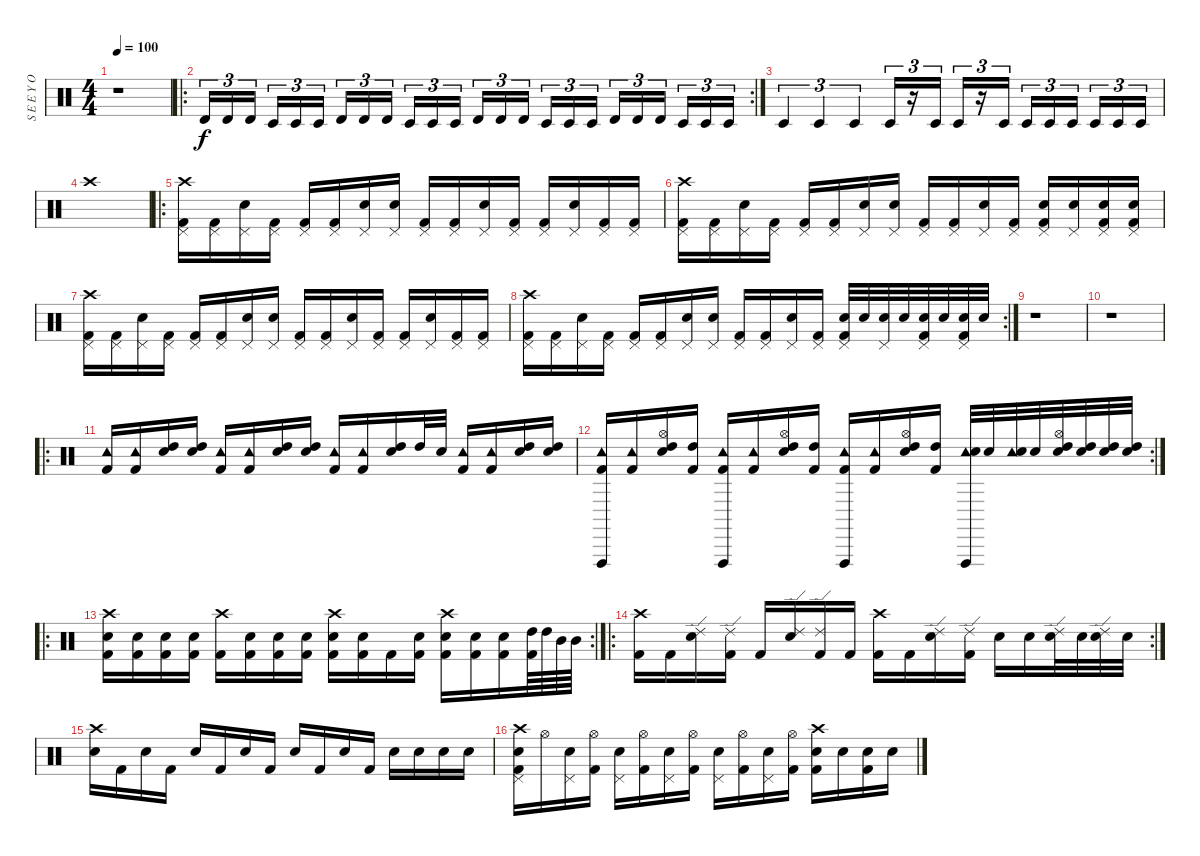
\track ("S E E Y O U R " "S E E Y O ") {instrument percussion}
\staff {score}
\articulation defaults
\ts (4 4)
\tempo 100
\clef neutral
\ks c
r.1{dy f} |
\ro
\rc 2 "Timbale high (hit)".16{tu (3 2)} "Timbale high (hit)".16{tu (3 2)} "Timbale high (hit)".16{tu (3 2)} "Timbale low (hit)".16{tu (3 2)} "Timbale low (hit)".16{tu (3 2)} "Timbale low (hit)".16{tu (3 2)} "Timbale high (hit)".16{tu (3 2)} "Timbale high (hit)".16{tu (3 2)} "Timbale high (hit)".16{tu (3 2)} "Timbale low (hit)".16{tu (3 2)} "Timbale low (hit)".16{tu (3 2)} "Timbale low (hit)".16{tu (3 2)} "Timbale high (hit)".16{tu (3 2)} "Timbale high (hit)".16{tu (3 2)} "Timbale high (hit)".16{tu (3 2)} "Timbale low (hit)".16{tu (3 2)} "Timbale low (hit)".16{tu (3 2)} "Timbale low (hit)".16{tu (3 2)} "Timbale high (hit)".16{tu (3 2)} "Timbale high (hit)".16{tu (3 2)} "Timbale high (hit)".16{tu (3 2)} "Timbale low (hit)".16{tu (3 2)} "Timbale low (hit)".16{tu (3 2)} "Timbale low (hit)".16{tu (3 2)}
|
"Timbale low (hit)".4{tu (3 2)} "Timbale low (hit)".4{tu (3 2)} "Timbale low (hit)".4{tu (3 2)} "Timbale low (hit)".16{tu (3 2)} r.16{tu (3 2)} "Timbale low (hit)".16{tu (3 2)} "Timbale low (hit)".16{tu (3 2)} r.16{tu (3 2)} "Timbale low (hit)".16{tu (3 2)} "Timbale low (hit)".16{tu (3 2)} "Timbale low (hit)".16{tu (3 2)} "Timbale low (hit)".16{tu (3 2)} "Timbale low (hit)".16{tu (3 2)} "Timbale low (hit)".16{tu (3 2)} "Timbale low (hit)".16{tu (3 2)} |
"Crash high (hit)".1 |
\ro
("Crash high (hit)" "Pedal Hi-Hat (hit)" "Kick (hit) 2").16 ("Pedal Hi-Hat (hit)" "Kick (hit) 2").16 ("Pedal Hi-Hat (hit)" "Electric Snare (hit)").16 ("Pedal Hi-Hat (hit)" "Kick (hit) 2").16 ("Pedal Hi-Hat (hit)" "Kick (hit) 2").16 ("Pedal Hi-Hat (hit)" "Kick (hit) 2").16 ("Pedal Hi-Hat (hit)" "Electric Snare (hit)").16 ("Pedal Hi-Hat (hit)" "Electric Snare (hit)").16 ("Pedal Hi-Hat (hit)" "Kick (hit) 2").16 ("Pedal Hi-Hat (hit)" "Kick (hit) 2").16 ("Pedal Hi-Hat (hit)" "Electric Snare (hit)").16 ("Pedal Hi-Hat (hit)" "Kick (hit) 2").16 ("Pedal Hi-Hat (hit)" "Kick (hit) 2").16 ("Pedal Hi-Hat (hit)" "Electric Snare (hit)").16 ("Pedal Hi-Hat (hit)" "Kick (hit) 2").16 ("Pedal Hi-Hat (hit)" "Kick (hit) 2").16 |
("Crash high (hit)" "Pedal Hi-Hat (hit)" "Kick (hit) 2").16 ("Pedal Hi-Hat (hit)" "Kick (hit) 2").16 ("Pedal Hi-Hat (hit)" "Electric Snare (hit)").16 ("Pedal Hi-Hat (hit)" "Kick (hit) 2").16 ("Pedal Hi-Hat (hit)" "Kick (hit) 2").16 ("Pedal Hi-Hat (hit)" "Kick (hit) 2").16 ("Pedal Hi-Hat (hit)" "Electric Snare (hit)").16 ("Pedal Hi-Hat (hit)" "Electric Snare (hit)").16 ("Pedal Hi-Hat (hit)" "Kick (hit) 2").16 ("Pedal Hi-Hat (hit)" "Kick (hit) 2").16 ("Pedal Hi-Hat (hit)" "Electric Snare (hit)").16 ("Pedal Hi-Hat (hit)" "Kick (hit) 2").16 ("Pedal Hi-Hat (hit)" "Electric Snare (hit)" "Kick (hit) 2").16 ("Pedal Hi-Hat (hit)" "Electric Snare (hit)").16 ("Pedal Hi-Hat (hit)" "Electric Snare (hit)" "Kick (hit) 2").16 ("Pedal Hi-Hat (hit)" "Electric Snare (hit)" "Kick (hit) 2").16 |
("Crash high (hit)" "Pedal Hi-Hat (hit)" "Kick (hit) 2").16 ("Pedal Hi-Hat (hit)" "Kick (hit) 2").16 ("Pedal Hi-Hat (hit)" "Electric Snare (hit)").16 ("Pedal Hi-Hat (hit)" "Kick (hit) 2").16 ("Pedal Hi-Hat (hit)" "Kick (hit) 2").16 ("Pedal Hi-Hat (hit)" "Kick (hit) 2").16 ("Pedal Hi-Hat (hit)" "Electric Snare (hit)").16 ("Pedal Hi-Hat (hit)" "Electric Snare (hit)").16 ("Pedal Hi-Hat (hit)" "Kick (hit) 2").16 ("Pedal Hi-Hat (hit)" "Kick (hit) 2").16 ("Pedal Hi-Hat (hit)" "Electric Snare (hit)").16 ("Pedal Hi-Hat (hit)" "Kick (hit) 2").16 ("Pedal Hi-Hat (hit)" "Kick (hit) 2").16 ("Pedal Hi-Hat (hit)" "Electric Snare (hit)").16 ("Pedal Hi-Hat (hit)" "Kick (hit) 2").16 ("Pedal Hi-Hat (hit)" "Kick (hit) 2").16 |
\rc 2
("Crash high (hit)" "Pedal Hi-Hat (hit)" "Kick (hit) 2").16 ("Pedal Hi-Hat (hit)" "Kick (hit) 2").16 ("Pedal Hi-Hat (hit)" "Electric Snare (hit)").16 ("Pedal Hi-Hat (hit)" "Kick (hit) 2").16 ("Pedal Hi-Hat (hit)" "Kick (hit) 2").16 ("Pedal Hi-Hat (hit)" "Kick (hit) 2").16 ("Pedal Hi-Hat (hit)" "Electric Snare (hit)").16 ("Pedal Hi-Hat (hit)" "Electric Snare (hit)").16 ("Pedal Hi-Hat (hit)" "Kick (hit) 2").16 ("Pedal Hi-Hat (hit)" "Kick (hit) 2").16 ("Pedal Hi-Hat (hit)" "Electric Snare (hit)").16 ("Pedal Hi-Hat (hit)" "Kick (hit) 2").16 ("Pedal Hi-Hat (hit)" "Electric Snare (hit)" "Kick (hit) 2").32 "Electric Snare (hit)".32 ("Pedal Hi-Hat (hit)" "Electric Snare (hit)").32 "Electric Snare (hit)".32 ("Pedal Hi-Hat (hit)" "Electric Snare (hit)" "Kick (hit) 2").32 "Electric Snare (hit)".32 ("Pedal Hi-Hat (hit)" "Electric Snare (hit)" "Kick (hit) 2").32 "Electric Snare (hit)".32 |
r.1 |
r.1 |
\ro
("Tambourine (hit)" "Kick (hit) 2").16 ("Tambourine (hit)" "Kick (hit) 2").16 ("High Tom (hit)" "Electric Snare (hit)").16 ("High Tom (hit)" "Electric Snare (hit)").16 ("Tambourine (hit)" "Kick (hit) 2").16 ("Tambourine (hit)" "Kick (hit) 2").16 ("High Tom (hit)" "Electric Snare (hit)").16 ("High Tom (hit)" "Electric Snare (hit)").16 ("Tambourine (hit)" "Kick (hit) 2").16 ("Tambourine (hit)" "Kick (hit) 2").16 ("High Tom (hit)" "Electric Snare (hit)").16 "High Tom (hit)".32 "Electric Snare (hit)".32 ("Tambourine (hit)" "Kick (hit) 2").16 ("Tambourine (hit)" "Kick (hit) 2").16 ("High Tom (hit)" "Electric Snare (hit)").16 ("High Tom (hit)" "Electric Snare (hit)").16 |
\rc 2
("Tambourine (hit)" "Vibraslap (hit)" "Kick (hit) 2").16 ("Tambourine (hit)" "Kick (hit) 2").16 ("Hi-Hat (open)" "Electric Snare (hit)" "High Tom (hit)").16 ("High Tom (hit)" "Kick (hit) 2").16 ("Tambourine (hit)" "Vibraslap (hit)" "Kick (hit) 2").16 ("Tambourine (hit)" "Kick (hit) 2").16 ("Hi-Hat (open)" "Electric Snare (hit)" "High Tom (hit)").16 ("High Tom (hit)" "Kick (hit) 2").16 ("Tambourine (hit)" "Vibraslap (hit)" "Kick (hit) 2").16 ("Tambourine (hit)" "Kick (hit) 2").16 ("Hi-Hat (open)" "Electric Snare (hit)" "High Tom (hit)").16 ("High Tom (hit)" "Kick (hit) 2").16 ("Tambourine (hit)" "Electric Snare (hit)" "Vibraslap (hit)").32 "Electric Snare (hit)".32 ("Tambourine (hit)" "Electric Snare (hit)").32 "Electric Snare (hit)".32 ("Hi-Hat (open)" "Electric Snare (hit)" "High Tom (hit)").32 ("Electric Snare (hit)" "High Tom (hit)").32 ("Electric Snare (hit)" "High Tom (hit)").32 ("Electric Snare (hit)" "High Tom (hit)").32 |
\ro
\rc 2
("Crash high (hit)" "Electric Snare (hit)" "Kick (hit) 2").16 ("Electric Snare (hit)" "Kick (hit) 2").16 ("Electric Snare (hit)" "Kick (hit) 2").16 ("Electric Snare (hit)" "Kick (hit) 2").16 ("Crash high (hit)" "Kick (hit) 2").16 ("Electric Snare (hit)" "Kick (hit) 2").16 ("Electric Snare (hit)" "Kick (hit) 2").16 ("Electric Snare (hit)" "Kick (hit) 2").16 ("Crash high (hit)" "Electric Snare (hit)" "Kick (hit) 2").16 ("Electric Snare (hit)" "Kick (hit) 2").16 "Kick (hit) 2".16 ("Electric Snare (hit)" "Kick (hit) 2").16 ("Crash high (hit)" "Electric Snare (hit)" "Kick (hit) 2").16 ("Electric Snare (hit)" "Kick (hit) 2").16 ("Electric Snare (hit)" "Kick (hit) 2").16 ("High Tom (hit)" "Kick (hit) 2").64 "High Tom (hit)".64 "Mid Tom (hit)".64 "Mid Tom (hit)".64 |
\ro
\rc 2
("Crash high (hit)" "Kick (hit) 2").16 "Kick (hit) 2".16 ("Ride (edge) 2" "Electric Snare (hit)").16 ("Ride (edge) 2" "Kick (hit) 2").16 "Kick (hit) 2".16 ("Ride (edge) 2" "Electric Snare (hit)").16 ("Ride (edge) 2" "Kick (hit) 2").16 "Kick (hit) 2".16 ("Crash high (hit)" "Kick (hit) 2").16 "Kick (hit) 2".16 ("Ride (edge) 2" "Electric Snare (hit)").16 ("Ride (edge) 2" "Kick (hit) 2").16 "Electric Snare (hit)".16 "Electric Snare (hit)".16 ("Ride (edge) 2" "Electric Snare (hit)").32 "Electric Snare (hit)".32 ("Ride (edge) 2" "Electric Snare (hit)").32 "Electric Snare (hit)".32 |
("Crash high (hit)" "Electric Snare (hit)").16 "Kick (hit) 2".16 "Electric Snare (hit)".16 "Kick (hit) 2".16 "Electric Snare (hit)".16 "Kick (hit) 2".16 "Electric Snare (hit)".16 "Kick (hit) 2".16 "Electric Snare (hit)".16 "Kick (hit) 2".16 "Electric Snare (hit)".16 "Kick (hit) 2".16 "Electric Snare (hit)".16 "Electric Snare (hit)".16 "Electric Snare (hit)".16 "Electric Snare (hit)".16 |
("Crash high (hit)" "Pedal Hi-Hat (hit)" "Electric Snare (hit)" "Kick (hit) 2").16 "Hi-Hat (open)".16 ("Pedal Hi-Hat (hit)" "Electric Snare (hit)").16 ("Hi-Hat (open)" "Kick (hit) 2").16 ("Pedal Hi-Hat (hit)" "Electric Snare (hit)").16 ("Hi-Hat (open)" "Kick (hit) 2").16 ("Pedal Hi-Hat (hit)" "Electric Snare (hit)").16 ("Hi-Hat (open)" "Kick (hit) 2").16 ("Pedal Hi-Hat (hit)" "Electric Snare (hit)").16 ("Hi-Hat (open)" "Kick (hit) 2").16 ("Pedal Hi-Hat (hit)" "Electric Snare (hit)").16 ("Hi-Hat (open)" "Kick (hit) 2").16 ("Crash high (hit)" "Electric Snare (hit)" "Kick (hit) 2").16 "Electric Snare (hit)".16 ("Electric Snare (hit)" "Kick (hit) 2").16 "Electric Snare (hit)".16
